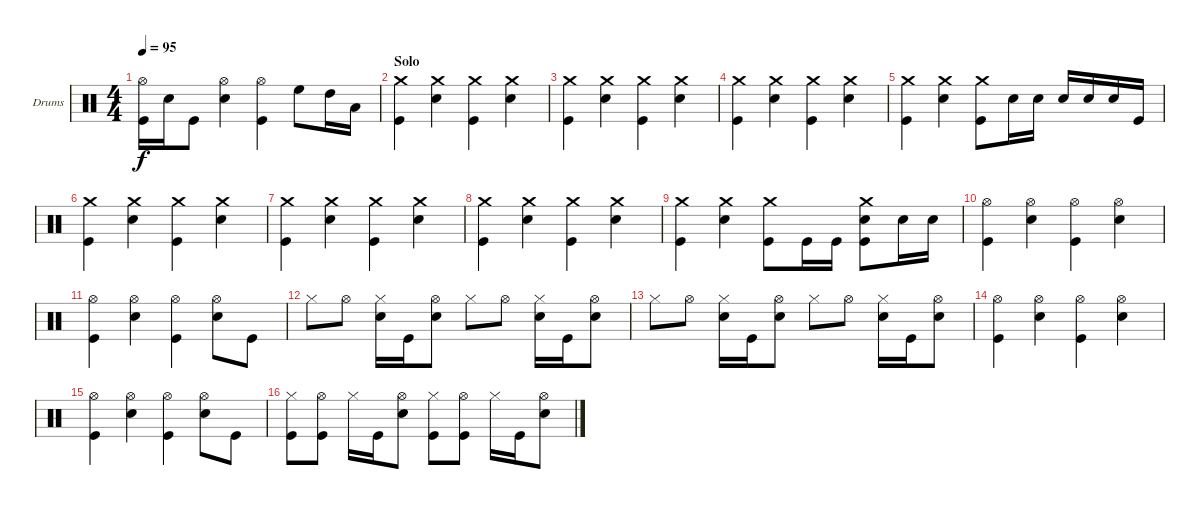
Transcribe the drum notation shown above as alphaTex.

\bracketExtendMode groupsimilarinstruments
\firstSystemTrackNameOrientation horizontal
\otherSystemsTrackNameOrientation horizontal
\track ("Drumkit" "Drums") {instrument percussion}
\staff {score}
\articulation defaults
\ts (4 4)
\tempo 95
\clef neutral
\ks c
("Hi-Hat (open)" "Kick (hit)").16{dy f} "Snare (hit) 2".16 "Kick (hit)".8 ("Hi-Hat (open)" "Snare (hit) 2").4 ("Hi-Hat (open)" "Kick (hit)").4 "High Floor Tom (hit)".8 "High Tom (hit)".16 "Low Tom (hit)".16 |
\section ("" "Solo")
("Crash medium (hit)" "Kick (hit)").4 ("Crash medium (hit)" "Snare (hit) 2").4 ("Crash medium (hit)" "Kick (hit)").4 ("Crash medium (hit)" "Snare (hit) 2").4 |
("Crash medium (hit)" "Kick (hit)").4 ("Crash medium (hit)" "Snare (hit) 2").4 ("Crash medium (hit)" "Kick (hit)").4 ("Crash medium (hit)" "Snare (hit) 2").4 |
("Crash medium (hit)" "Kick (hit)").4 ("Crash medium (hit)" "Snare (hit) 2").4 ("Crash medium (hit)" "Kick (hit)").4 ("Crash medium (hit)" "Snare (hit) 2").4 |
("Crash medium (hit)" "Kick (hit)").4 ("Crash medium (hit)" "Snare (hit) 2").4 ("Crash medium (hit)" "Kick (hit)").8 "Snare (hit) 2".16 "Snare (hit) 2".16 "Snare (hit) 2".16 "Snare (hit) 2".16 "Snare (hit) 2".16 "Kick (hit)".16 |
("Crash medium (hit)" "Kick (hit)").4 ("Crash medium (hit)" "Snare (hit) 2").4 ("Crash medium (hit)" "Kick (hit)").4 ("Crash medium (hit)" "Snare (hit) 2").4 |
("Crash medium (hit)" "Kick (hit)").4 ("Crash medium (hit)" "Snare (hit) 2").4 ("Crash medium (hit)" "Kick (hit)").4 ("Crash medium (hit)" "Snare (hit) 2").4 |
("Crash medium (hit)" "Kick (hit)").4 ("Crash medium (hit)" "Snare (hit) 2").4 ("Crash medium (hit)" "Kick (hit)").4 ("Crash medium (hit)" "Snare (hit) 2").4 |
("Crash medium (hit)" "Kick (hit)").4 ("Crash medium (hit)" "Snare (hit) 2").4 ("Crash medium (hit)" "Kick (hit)").8 "Kick (hit)".16 "Kick (hit)".16 ("Crash medium (hit)" "Snare (hit) 2" "Kick (hit)").8 "Snare (hit) 2".16 "Snare (hit) 2".16 |
("Hi-Hat (open)" "Kick (hit)").4 ("Hi-Hat (open)" "Snare (hit) 2").4 ("Hi-Hat (open)" "Kick (hit)").4 ("Hi-Hat (open)" "Snare (hit) 2").4 |
("Hi-Hat (open)" "Kick (hit)").4 ("Hi-Hat (open)" "Snare (hit) 2").4 ("Hi-Hat (open)" "Kick (hit)").4 ("Hi-Hat (open)" "Snare (hit) 2").8 "Kick (hit)".8 |
"Hi-Hat (closed)".8 "Hi-Hat (open)".8 ("Hi-Hat (closed)" "Snare (hit) 2").16 "Kick (hit)".16 ("Hi-Hat (open)" "Snare (hit) 2").8 "Hi-Hat (closed)".8 "Hi-Hat (open)".8 ("Hi-Hat (closed)" "Snare (hit) 2").16 "Kick (hit)".16 ("Hi-Hat (open)" "Snare (hit) 2").8 |
"Hi-Hat (closed)".8 "Hi-Hat (open)".8 ("Hi-Hat (closed)" "Snare (hit) 2").16 "Kick (hit)".16 ("Hi-Hat (open)" "Snare (hit) 2").8 "Hi-Hat (closed)".8 "Hi-Hat (open)".8 ("Hi-Hat (closed)" "Snare (hit) 2").16 "Kick (hit)".16 ("Hi-Hat (open)" "Snare (hit) 2").8 |
("Hi-Hat (open)" "Kick (hit)").4 ("Hi-Hat (open)" "Snare (hit) 2").4 ("Hi-Hat (open)" "Kick (hit)").4 ("Hi-Hat (open)" "Snare (hit) 2").4 |
("Hi-Hat (open)" "Kick (hit)").4 ("Hi-Hat (open)" "Snare (hit) 2").4 ("Hi-Hat (open)" "Kick (hit)").4 ("Hi-Hat (open)" "Snare (hit) 2").8 "Kick (hit)".8 |
("Hi-Hat (closed)" "Kick (hit)").8 ("Hi-Hat (open)" "Kick (hit)").8 "Hi-Hat (closed)".16 "Kick (hit)".16 ("Hi-Hat (open)" "Snare (hit) 2").8 ("Hi-Hat (closed)" "Kick (hit)").8 ("Hi-Hat (open)" "Kick (hit)").8 "Hi-Hat (closed)".16 "Kick (hit)".16 ("Hi-Hat (open)" "Snare (hit) 2").8
